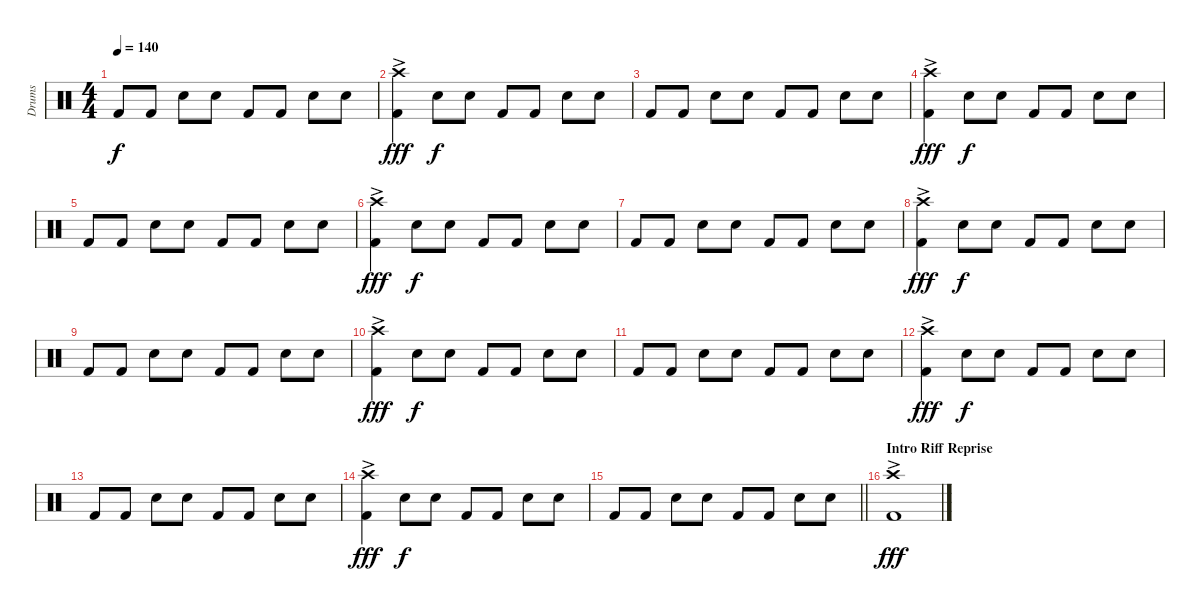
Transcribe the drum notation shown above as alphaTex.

\track ("Drums" "Drums") {instrument percussion}
\staff {score}
\articulation defaults
\ts (4 4)
\tempo 140
\clef neutral
\ks c "Kick (hit) 2".8{dy f} "Kick (hit) 2".8 "Snare (hit) 2".8 "Snare (hit) 2".8 "Kick (hit) 2".8 "Kick (hit) 2".8 "Snare (hit) 2".8 "Snare (hit) 2".8
|
("Crash high (hit)"{ac} "Kick (hit) 2"{ac}).4{dy fff} "Snare (hit) 2".8{dy f} "Snare (hit) 2".8 "Kick (hit) 2".8 "Kick (hit) 2".8 "Snare (hit) 2".8 "Snare (hit) 2".8 |
"Kick (hit) 2".8 "Kick (hit) 2".8 "Snare (hit) 2".8 "Snare (hit) 2".8 "Kick (hit) 2".8 "Kick (hit) 2".8 "Snare (hit) 2".8 "Snare (hit) 2".8 |
("Crash high (hit)"{ac} "Kick (hit) 2"{ac}).4{dy fff} "Snare (hit) 2".8{dy f} "Snare (hit) 2".8 "Kick (hit) 2".8 "Kick (hit) 2".8 "Snare (hit) 2".8 "Snare (hit) 2".8 |
"Kick (hit) 2".8 "Kick (hit) 2".8 "Snare (hit) 2".8 "Snare (hit) 2".8 "Kick (hit) 2".8 "Kick (hit) 2".8 "Snare (hit) 2".8 "Snare (hit) 2".8 |
("Crash high (hit)"{ac} "Kick (hit) 2"{ac}).4{dy fff} "Snare (hit) 2".8{dy f} "Snare (hit) 2".8 "Kick (hit) 2".8 "Kick (hit) 2".8 "Snare (hit) 2".8 "Snare (hit) 2".8 |
"Kick (hit) 2".8 "Kick (hit) 2".8 "Snare (hit) 2".8 "Snare (hit) 2".8 "Kick (hit) 2".8 "Kick (hit) 2".8 "Snare (hit) 2".8 "Snare (hit) 2".8 |
("Crash high (hit)"{ac} "Kick (hit) 2"{ac}).4{dy fff} "Snare (hit) 2".8{dy f} "Snare (hit) 2".8 "Kick (hit) 2".8 "Kick (hit) 2".8 "Snare (hit) 2".8 "Snare (hit) 2".8 |
"Kick (hit) 2".8 "Kick (hit) 2".8 "Snare (hit) 2".8 "Snare (hit) 2".8 "Kick (hit) 2".8 "Kick (hit) 2".8 "Snare (hit) 2".8 "Snare (hit) 2".8 |
("Crash high (hit)"{ac} "Kick (hit) 2"{ac}).4{dy fff} "Snare (hit) 2".8{dy f} "Snare (hit) 2".8 "Kick (hit) 2".8 "Kick (hit) 2".8 "Snare (hit) 2".8 "Snare (hit) 2".8 |
"Kick (hit) 2".8 "Kick (hit) 2".8 "Snare (hit) 2".8 "Snare (hit) 2".8 "Kick (hit) 2".8 "Kick (hit) 2".8 "Snare (hit) 2".8 "Snare (hit) 2".8 |
("Crash high (hit)"{ac} "Kick (hit) 2"{ac}).4{dy fff} "Snare (hit) 2".8{dy f} "Snare (hit) 2".8 "Kick (hit) 2".8 "Kick (hit) 2".8 "Snare (hit) 2".8 "Snare (hit) 2".8 |
"Kick (hit) 2".8 "Kick (hit) 2".8 "Snare (hit) 2".8 "Snare (hit) 2".8 "Kick (hit) 2".8 "Kick (hit) 2".8 "Snare (hit) 2".8 "Snare (hit) 2".8 |
("Crash high (hit)"{ac} "Kick (hit) 2"{ac}).4{dy fff} "Snare (hit) 2".8{dy f} "Snare (hit) 2".8 "Kick (hit) 2".8 "Kick (hit) 2".8 "Snare (hit) 2".8 "Snare (hit) 2".8 |
\barLineRight lightlight "Kick (hit) 2".8 "Kick (hit) 2".8 "Snare (hit) 2".8 "Snare (hit) 2".8 "Kick (hit) 2".8 "Kick (hit) 2".8 "Snare (hit) 2".8 "Snare (hit) 2".8
|
\section ("" "Intro Riff Reprise")
("Crash high (hit)"{ac} "Kick (hit) 2"{ac}).1{dy fff}
